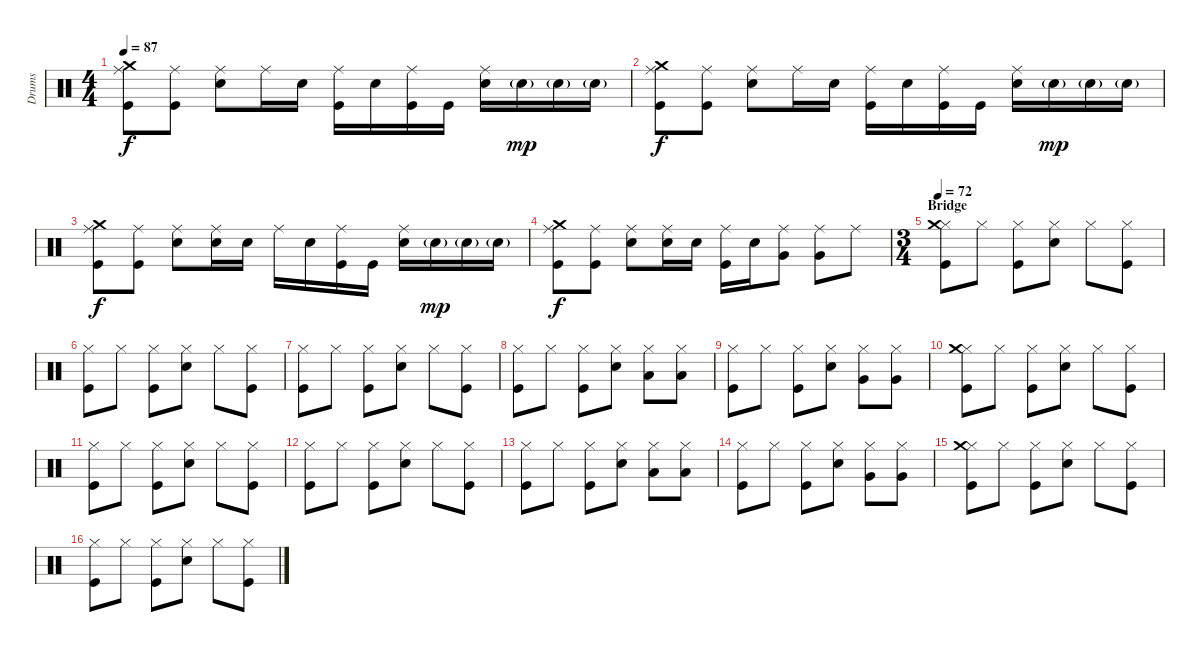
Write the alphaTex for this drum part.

\track ("Drums" "Drums") {instrument percussion}
\staff {score}
\articulation defaults
\ts (4 4)
\tempo 87
\clef neutral
\ks c
("Ride (middle)" "Crash medium (hit)" "Kick (hit)").8{dy f} ("Ride (middle)" "Kick (hit)").8 ("Ride (middle)" "Snare (hit) 2").8 "Ride (middle)".16 "Snare (hit) 2".16 ("Ride (middle)" "Kick (hit)").16 "Snare (hit) 2".16 ("Ride (middle)" "Kick (hit)").16 "Kick (hit)".16 ("Ride (middle)" "Snare (hit) 2").16 "Snare (hit) 2"{g}.16{dy mp} "Snare (hit) 2"{g}.16 "Snare (hit) 2"{g}.16 |
("Ride (middle)" "Crash medium (hit)" "Kick (hit)").8{dy f} ("Ride (middle)" "Kick (hit)").8 ("Ride (middle)" "Snare (hit) 2").8 "Ride (middle)".16 "Snare (hit) 2".16 ("Ride (middle)" "Kick (hit)").16 "Snare (hit) 2".16 ("Ride (middle)" "Kick (hit)").16 "Kick (hit)".16 ("Ride (middle)" "Snare (hit) 2").16 "Snare (hit) 2"{g}.16{dy mp} "Snare (hit) 2"{g}.16 "Snare (hit) 2"{g}.16 |
("Ride (middle)" "Crash medium (hit)" "Kick (hit)").8{dy f} ("Ride (middle)" "Kick (hit)").8 ("Ride (middle)" "Snare (hit) 2").8 ("Ride (middle)" "Snare (hit) 2").16 "Snare (hit) 2".16 "Ride (middle)".16 "Snare (hit) 2".16 ("Ride (middle)" "Kick (hit)").16 "Kick (hit)".16 ("Ride (middle)" "Snare (hit) 2").16 "Snare (hit) 2"{g}.16{dy mp} "Snare (hit) 2"{g}.16 "Snare (hit) 2"{g}.16 |
("Ride (middle)" "Crash medium (hit)" "Kick (hit)").8{dy f} ("Ride (middle)" "Kick (hit)").8 ("Ride (middle)" "Snare (hit) 2").8 ("Ride (middle)" "Snare (hit) 2").16 "Snare (hit) 2".16 ("Ride (middle)" "Kick (hit)").16 "Snare (hit) 2".16 ("Ride (middle)" "Very Low Tom (hit)").8 ("Ride (middle)" "Very Low Tom (hit)").8 "Ride (middle)".8 |
\ts (3 4)
\section ("" "Bridge")
\tempo 72
("Hi-Hat (closed)" "Crash medium (hit)" "Kick (hit)").8 "Hi-Hat (closed)".8 ("Hi-Hat (closed)" "Kick (hit)").8 ("Hi-Hat (closed)" "Snare (hit) 2").8 "Hi-Hat (closed)".8 ("Hi-Hat (closed)" "Kick (hit)").8 |
("Hi-Hat (closed)" "Kick (hit)").8 "Hi-Hat (closed)".8 ("Hi-Hat (closed)" "Kick (hit)").8 ("Hi-Hat (closed)" "Snare (hit) 2").8 "Hi-Hat (closed)".8 ("Hi-Hat (closed)" "Kick (hit)").8 |
("Hi-Hat (closed)" "Kick (hit)").8 "Hi-Hat (closed)".8 ("Hi-Hat (closed)" "Kick (hit)").8 ("Hi-Hat (closed)" "Snare (hit) 2").8 "Hi-Hat (closed)".8 ("Hi-Hat (closed)" "Kick (hit)").8 |
("Hi-Hat (closed)" "Kick (hit)").8 "Hi-Hat (closed)".8 ("Hi-Hat (closed)" "Kick (hit)").8 ("Hi-Hat (closed)" "Snare (hit) 2").8 ("Hi-Hat (closed)" "Low Tom (hit)").8 ("Hi-Hat (closed)" "Low Tom (hit)").8 |
("Hi-Hat (closed)" "Kick (hit)").8 "Hi-Hat (closed)".8 ("Hi-Hat (closed)" "Kick (hit)").8 ("Hi-Hat (closed)" "Snare (hit) 2").8 ("Hi-Hat (closed)" "Very Low Tom (hit)").8 ("Hi-Hat (closed)" "Very Low Tom (hit)").8 |
("Hi-Hat (closed)" "Crash medium (hit)" "Kick (hit)").8 "Hi-Hat (closed)".8 ("Hi-Hat (closed)" "Kick (hit)").8 ("Hi-Hat (closed)" "Snare (hit) 2").8 "Hi-Hat (closed)".8 ("Hi-Hat (closed)" "Kick (hit)").8 |
("Hi-Hat (closed)" "Kick (hit)").8 "Hi-Hat (closed)".8 ("Hi-Hat (closed)" "Kick (hit)").8 ("Hi-Hat (closed)" "Snare (hit) 2").8 "Hi-Hat (closed)".8 ("Hi-Hat (closed)" "Kick (hit)").8 |
("Hi-Hat (closed)" "Kick (hit)").8 "Hi-Hat (closed)".8 ("Hi-Hat (closed)" "Kick (hit)").8 ("Hi-Hat (closed)" "Snare (hit) 2").8 "Hi-Hat (closed)".8 ("Hi-Hat (closed)" "Kick (hit)").8 |
("Hi-Hat (closed)" "Kick (hit)").8 "Hi-Hat (closed)".8 ("Hi-Hat (closed)" "Kick (hit)").8 ("Hi-Hat (closed)" "Snare (hit) 2").8 ("Hi-Hat (closed)" "Low Tom (hit)").8 ("Hi-Hat (closed)" "Low Tom (hit)").8 |
("Hi-Hat (closed)" "Kick (hit)").8 "Hi-Hat (closed)".8 ("Hi-Hat (closed)" "Kick (hit)").8 ("Hi-Hat (closed)" "Snare (hit) 2").8 ("Hi-Hat (closed)" "Very Low Tom (hit)").8 ("Hi-Hat (closed)" "Very Low Tom (hit)").8 |
("Hi-Hat (closed)" "Crash medium (hit)" "Kick (hit)").8 "Hi-Hat (closed)".8 ("Hi-Hat (closed)" "Kick (hit)").8 ("Hi-Hat (closed)" "Snare (hit) 2").8 "Hi-Hat (closed)".8 ("Hi-Hat (closed)" "Kick (hit)").8 |
("Hi-Hat (closed)" "Kick (hit)").8 "Hi-Hat (closed)".8 ("Hi-Hat (closed)" "Kick (hit)").8 ("Hi-Hat (closed)" "Snare (hit) 2").8 "Hi-Hat (closed)".8 ("Hi-Hat (closed)" "Kick (hit)").8
